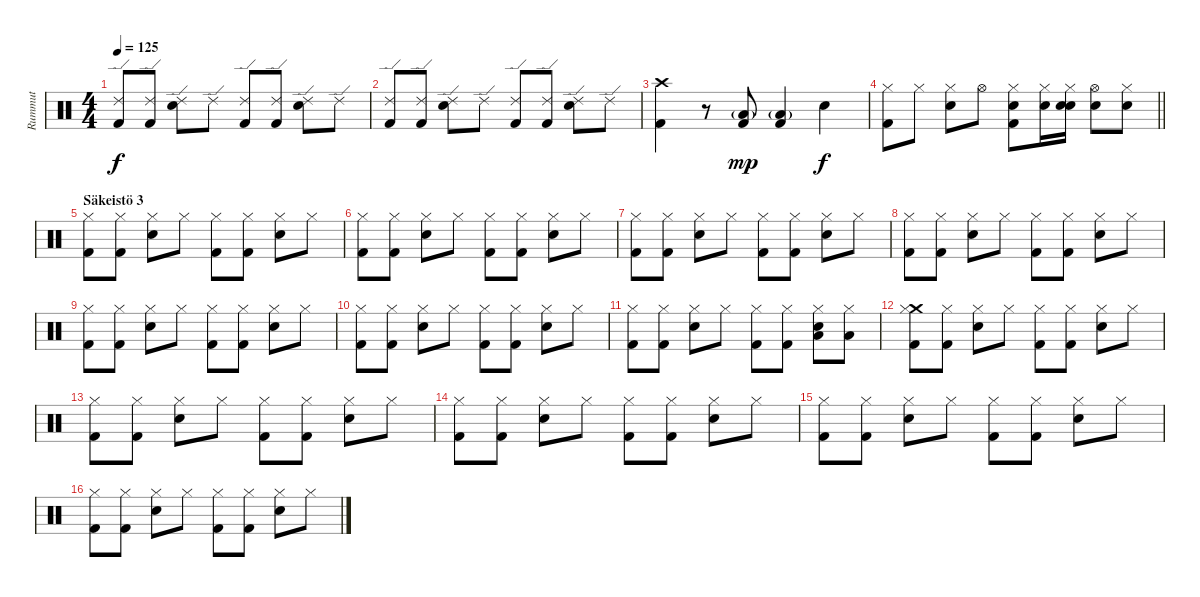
\track ("Rummut" "Rummut") {instrument percussion}
\staff {score}
\articulation defaults
\ts (4 4)
\tempo 125
\clef neutral
\ks c
("Kick (hit) 2" "Ride (edge) 2").8{dy f} ("Kick (hit) 2" "Ride (edge) 2").8 ("Snare (hit) 2" "Ride (edge) 2").8 "Ride (edge) 2".8 ("Kick (hit) 2" "Ride (edge) 2").8 ("Kick (hit) 2" "Ride (edge) 2").8 ("Snare (hit) 2" "Ride (edge) 2").8 "Ride (edge) 2".8 |
("Kick (hit) 2" "Ride (edge) 2").8 ("Kick (hit) 2" "Ride (edge) 2").8 ("Snare (hit) 2" "Ride (edge) 2").8 "Ride (edge) 2".8 ("Kick (hit) 2" "Ride (edge) 2").8 ("Kick (hit) 2" "Ride (edge) 2").8 ("Snare (hit) 2" "Ride (edge) 2").8 "Ride (edge) 2".8 |
("Kick (hit) 2" "Crash high (hit)").4 r.8 ("Low Tom (hit)"{g} "Kick (hit) 2").8{dy mp} ("Low Tom (hit)"{g} "Kick (hit) 2").4 "Snare (hit) 2".4{dy f} |
\barLineRight lightlight
("Hi-Hat (closed)" "Kick (hit) 2").8 "Hi-Hat (closed)".8 ("Hi-Hat (closed)" "Snare (hit) 2").8 "Hi-Hat (open)".8 ("Snare (hit) 2" "Hi-Hat (closed)" "Kick (hit) 2").8 ("Snare (hit) 2" "Hi-Hat (closed)").16 ("Snare (hit) 2" "Hi-Hat (closed)" "Snare (hit) 2").16 ("Snare (hit) 2" "Hi-Hat (open)").8 ("Snare (hit) 2" "Hi-Hat (closed)").8 |
\section ("" "Säkeistö 3")
("Kick (hit) 2" "Hi-Hat (closed)").8 ("Kick (hit) 2" "Hi-Hat (closed)").8 ("Snare (hit) 2" "Hi-Hat (closed)").8 "Hi-Hat (closed)".8 ("Kick (hit) 2" "Hi-Hat (closed)").8 ("Kick (hit) 2" "Hi-Hat (closed)").8 ("Snare (hit) 2" "Hi-Hat (closed)").8 "Hi-Hat (closed)".8 |
("Kick (hit) 2" "Hi-Hat (closed)").8 ("Kick (hit) 2" "Hi-Hat (closed)").8 ("Snare (hit) 2" "Hi-Hat (closed)").8 "Hi-Hat (closed)".8 ("Kick (hit) 2" "Hi-Hat (closed)").8 ("Kick (hit) 2" "Hi-Hat (closed)").8 ("Snare (hit) 2" "Hi-Hat (closed)").8 "Hi-Hat (closed)".8 |
("Kick (hit) 2" "Hi-Hat (closed)").8 ("Kick (hit) 2" "Hi-Hat (closed)").8 ("Snare (hit) 2" "Hi-Hat (closed)").8 "Hi-Hat (closed)".8 ("Kick (hit) 2" "Hi-Hat (closed)").8 ("Kick (hit) 2" "Hi-Hat (closed)").8 ("Snare (hit) 2" "Hi-Hat (closed)").8 "Hi-Hat (closed)".8 |
("Kick (hit) 2" "Hi-Hat (closed)").8 ("Kick (hit) 2" "Hi-Hat (closed)").8 ("Snare (hit) 2" "Hi-Hat (closed)").8 "Hi-Hat (closed)".8 ("Kick (hit) 2" "Hi-Hat (closed)").8 ("Kick (hit) 2" "Hi-Hat (closed)").8 ("Snare (hit) 2" "Hi-Hat (closed)").8 "Hi-Hat (closed)".8 |
("Kick (hit) 2" "Hi-Hat (closed)").8 ("Kick (hit) 2" "Hi-Hat (closed)").8 ("Snare (hit) 2" "Hi-Hat (closed)").8 "Hi-Hat (closed)".8 ("Kick (hit) 2" "Hi-Hat (closed)").8 ("Kick (hit) 2" "Hi-Hat (closed)").8 ("Snare (hit) 2" "Hi-Hat (closed)").8 "Hi-Hat (closed)".8 |
("Kick (hit) 2" "Hi-Hat (closed)").8 ("Kick (hit) 2" "Hi-Hat (closed)").8 ("Snare (hit) 2" "Hi-Hat (closed)").8 "Hi-Hat (closed)".8 ("Kick (hit) 2" "Hi-Hat (closed)").8 ("Kick (hit) 2" "Hi-Hat (closed)").8 ("Snare (hit) 2" "Hi-Hat (closed)").8 "Hi-Hat (closed)".8 |
("Kick (hit) 2" "Hi-Hat (closed)").8 ("Kick (hit) 2" "Hi-Hat (closed)").8 ("Snare (hit) 2" "Hi-Hat (closed)").8 "Hi-Hat (closed)".8 ("Kick (hit) 2" "Hi-Hat (closed)").8 ("Kick (hit) 2" "Hi-Hat (closed)").8 ("Low Tom (hit)" "Snare (hit) 2" "Hi-Hat (closed)").8 ("Low Tom (hit)" "Hi-Hat (closed)").8 |
("Crash medium (hit)" "Kick (hit) 2" "Hi-Hat (closed)").8 ("Kick (hit) 2" "Hi-Hat (closed)").8 ("Snare (hit) 2" "Hi-Hat (closed)").8 "Hi-Hat (closed)".8 ("Kick (hit) 2" "Hi-Hat (closed)").8 ("Kick (hit) 2" "Hi-Hat (closed)").8 ("Snare (hit) 2" "Hi-Hat (closed)").8 "Hi-Hat (closed)".8 |
("Kick (hit) 2" "Hi-Hat (closed)").8 ("Kick (hit) 2" "Hi-Hat (closed)").8 ("Snare (hit) 2" "Hi-Hat (closed)").8 "Hi-Hat (closed)".8 ("Kick (hit) 2" "Hi-Hat (closed)").8 ("Kick (hit) 2" "Hi-Hat (closed)").8 ("Snare (hit) 2" "Hi-Hat (closed)").8 "Hi-Hat (closed)".8 |
("Kick (hit) 2" "Hi-Hat (closed)").8 ("Kick (hit) 2" "Hi-Hat (closed)").8 ("Snare (hit) 2" "Hi-Hat (closed)").8 "Hi-Hat (closed)".8 ("Kick (hit) 2" "Hi-Hat (closed)").8 ("Kick (hit) 2" "Hi-Hat (closed)").8 ("Snare (hit) 2" "Hi-Hat (closed)").8 "Hi-Hat (closed)".8 |
("Kick (hit) 2" "Hi-Hat (closed)").8 ("Kick (hit) 2" "Hi-Hat (closed)").8 ("Snare (hit) 2" "Hi-Hat (closed)").8 "Hi-Hat (closed)".8 ("Kick (hit) 2" "Hi-Hat (closed)").8 ("Kick (hit) 2" "Hi-Hat (closed)").8 ("Snare (hit) 2" "Hi-Hat (closed)").8 "Hi-Hat (closed)".8 |
("Kick (hit) 2" "Hi-Hat (closed)").8 ("Kick (hit) 2" "Hi-Hat (closed)").8 ("Snare (hit) 2" "Hi-Hat (closed)").8 "Hi-Hat (closed)".8 ("Kick (hit) 2" "Hi-Hat (closed)").8 ("Kick (hit) 2" "Hi-Hat (closed)").8 ("Snare (hit) 2" "Hi-Hat (closed)").8 "Hi-Hat (closed)".8
